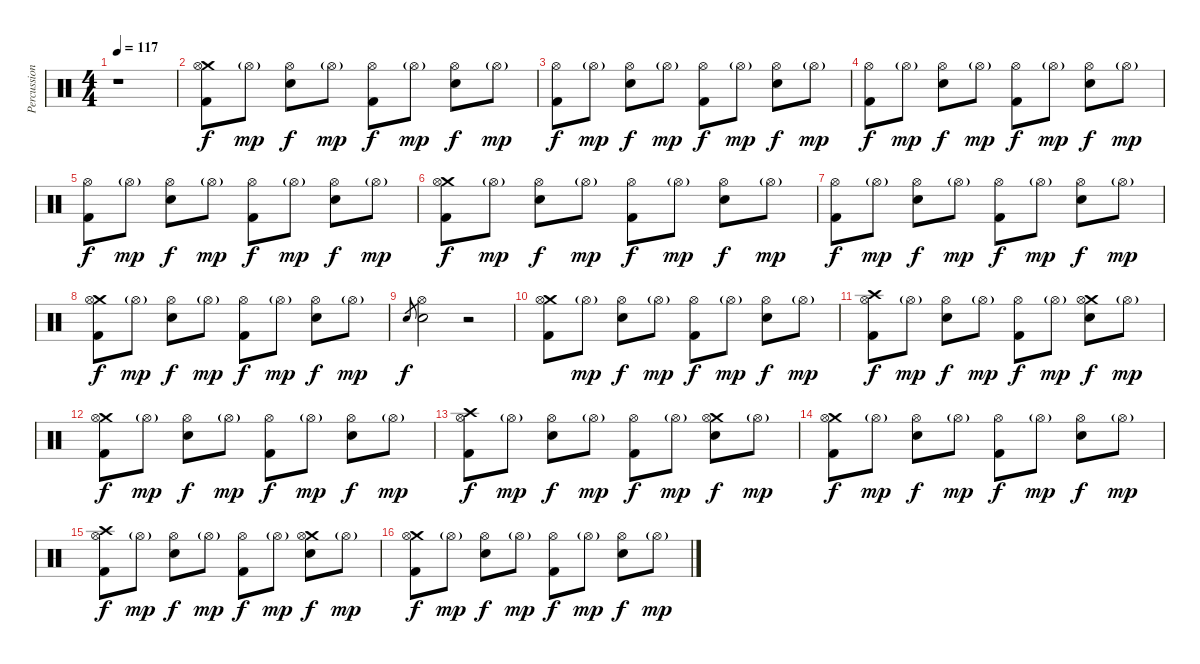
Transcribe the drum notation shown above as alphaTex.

\track ("Percussion" "Percussion") {instrument percussion}
\staff {score}
\articulation defaults
\ts (4 4)
\tempo 117
\clef neutral
\ks c
r.1{dy f} |
("Crash medium (hit)" "Hi-Hat (open)" "Kick (hit) 2").8 "Hi-Hat (open)"{g}.8{dy mp} ("Hi-Hat (open)" "Electric Snare (hit)").8{dy f} "Hi-Hat (open)"{g}.8{dy mp} ("Hi-Hat (open)" "Kick (hit) 2").8{dy f} "Hi-Hat (open)"{g}.8{dy mp} ("Hi-Hat (open)" "Electric Snare (hit)").8{dy f} "Hi-Hat (open)"{g}.8{dy mp} |
("Hi-Hat (open)" "Kick (hit) 2").8{dy f} "Hi-Hat (open)"{g}.8{dy mp} ("Hi-Hat (open)" "Electric Snare (hit)").8{dy f} "Hi-Hat (open)"{g}.8{dy mp} ("Hi-Hat (open)" "Kick (hit) 2").8{dy f} "Hi-Hat (open)"{g}.8{dy mp} ("Hi-Hat (open)" "Electric Snare (hit)").8{dy f} "Hi-Hat (open)"{g}.8{dy mp} |
("Hi-Hat (open)" "Kick (hit) 2").8{dy f} "Hi-Hat (open)"{g}.8{dy mp} ("Hi-Hat (open)" "Electric Snare (hit)").8{dy f} "Hi-Hat (open)"{g}.8{dy mp} ("Hi-Hat (open)" "Kick (hit) 2").8{dy f} "Hi-Hat (open)"{g}.8{dy mp} ("Hi-Hat (open)" "Electric Snare (hit)").8{dy f} "Hi-Hat (open)"{g}.8{dy mp} |
("Hi-Hat (open)" "Kick (hit) 2").8{dy f} "Hi-Hat (open)"{g}.8{dy mp} ("Hi-Hat (open)" "Electric Snare (hit)").8{dy f} "Hi-Hat (open)"{g}.8{dy mp} ("Hi-Hat (open)" "Kick (hit) 2").8{dy f} "Hi-Hat (open)"{g}.8{dy mp} ("Hi-Hat (open)" "Electric Snare (hit)").8{dy f} "Hi-Hat (open)"{g}.8{dy mp} |
("Crash medium (hit)" "Hi-Hat (open)" "Kick (hit) 2").8{dy f} "Hi-Hat (open)"{g}.8{dy mp} ("Hi-Hat (open)" "Electric Snare (hit)").8{dy f} "Hi-Hat (open)"{g}.8{dy mp} ("Hi-Hat (open)" "Kick (hit) 2").8{dy f} "Hi-Hat (open)"{g}.8{dy mp} ("Hi-Hat (open)" "Electric Snare (hit)").8{dy f} "Hi-Hat (open)"{g}.8{dy mp} |
("Hi-Hat (open)" "Kick (hit) 2").8{dy f} "Hi-Hat (open)"{g}.8{dy mp} ("Hi-Hat (open)" "Electric Snare (hit)").8{dy f} "Hi-Hat (open)"{g}.8{dy mp} ("Hi-Hat (open)" "Kick (hit) 2").8{dy f} "Hi-Hat (open)"{g}.8{dy mp} ("Hi-Hat (open)" "Electric Snare (hit)").8{dy f} "Hi-Hat (open)"{g}.8{dy mp} |
("Crash medium (hit)" "Hi-Hat (open)" "Kick (hit) 2").8{dy f} "Hi-Hat (open)"{g}.8{dy mp} ("Hi-Hat (open)" "Electric Snare (hit)").8{dy f} "Hi-Hat (open)"{g}.8{dy mp} ("Hi-Hat (open)" "Kick (hit) 2").8{dy f} "Hi-Hat (open)"{g}.8{dy mp} ("Hi-Hat (open)" "Electric Snare (hit)").8{dy f} "Hi-Hat (open)"{g}.8{dy mp} |
"Snare (hit) 2".8{gr dy f} ("Hi-Hat (open)" "Snare (hit) 2").2 r.2 |
("Crash medium (hit)" "Hi-Hat (open)" "Kick (hit) 2").8 "Hi-Hat (open)"{g}.8{dy mp} ("Hi-Hat (open)" "Electric Snare (hit)").8{dy f} "Hi-Hat (open)"{g}.8{dy mp} ("Hi-Hat (open)" "Kick (hit) 2").8{dy f} "Hi-Hat (open)"{g}.8{dy mp} ("Hi-Hat (open)" "Electric Snare (hit)").8{dy f} "Hi-Hat (open)"{g}.8{dy mp} |
("Crash high (hit)" "Hi-Hat (open)" "Kick (hit) 2").8{dy f} "Hi-Hat (open)"{g}.8{dy mp} ("Hi-Hat (open)" "Electric Snare (hit)").8{dy f} "Hi-Hat (open)"{g}.8{dy mp} ("Hi-Hat (open)" "Kick (hit) 2").8{dy f} "Hi-Hat (open)"{g}.8{dy mp} ("Crash medium (hit)" "Hi-Hat (open)" "Electric Snare (hit)").8{dy f} "Hi-Hat (open)"{g}.8{dy mp} |
("Crash medium (hit)" "Hi-Hat (open)" "Kick (hit) 2").8{dy f} "Hi-Hat (open)"{g}.8{dy mp} ("Hi-Hat (open)" "Electric Snare (hit)").8{dy f} "Hi-Hat (open)"{g}.8{dy mp} ("Hi-Hat (open)" "Kick (hit) 2").8{dy f} "Hi-Hat (open)"{g}.8{dy mp} ("Hi-Hat (open)" "Electric Snare (hit)").8{dy f} "Hi-Hat (open)"{g}.8{dy mp} |
("Crash high (hit)" "Hi-Hat (open)" "Kick (hit) 2").8{dy f} "Hi-Hat (open)"{g}.8{dy mp} ("Hi-Hat (open)" "Electric Snare (hit)").8{dy f} "Hi-Hat (open)"{g}.8{dy mp} ("Hi-Hat (open)" "Kick (hit) 2").8{dy f} "Hi-Hat (open)"{g}.8{dy mp} ("Crash medium (hit)" "Hi-Hat (open)" "Electric Snare (hit)").8{dy f} "Hi-Hat (open)"{g}.8{dy mp} |
("Crash medium (hit)" "Hi-Hat (open)" "Kick (hit) 2").8{dy f} "Hi-Hat (open)"{g}.8{dy mp} ("Hi-Hat (open)" "Electric Snare (hit)").8{dy f} "Hi-Hat (open)"{g}.8{dy mp} ("Hi-Hat (open)" "Kick (hit) 2").8{dy f} "Hi-Hat (open)"{g}.8{dy mp} ("Hi-Hat (open)" "Electric Snare (hit)").8{dy f} "Hi-Hat (open)"{g}.8{dy mp} |
("Crash high (hit)" "Hi-Hat (open)" "Kick (hit) 2").8{dy f} "Hi-Hat (open)"{g}.8{dy mp} ("Hi-Hat (open)" "Electric Snare (hit)").8{dy f} "Hi-Hat (open)"{g}.8{dy mp} ("Hi-Hat (open)" "Kick (hit) 2").8{dy f} "Hi-Hat (open)"{g}.8{dy mp} ("Crash medium (hit)" "Hi-Hat (open)" "Electric Snare (hit)").8{dy f} "Hi-Hat (open)"{g}.8{dy mp} |
("Crash medium (hit)" "Hi-Hat (open)" "Kick (hit) 2").8{dy f} "Hi-Hat (open)"{g}.8{dy mp} ("Hi-Hat (open)" "Electric Snare (hit)").8{dy f} "Hi-Hat (open)"{g}.8{dy mp} ("Hi-Hat (open)" "Kick (hit) 2").8{dy f} "Hi-Hat (open)"{g}.8{dy mp} ("Hi-Hat (open)" "Electric Snare (hit)").8{dy f} "Hi-Hat (open)"{g}.8{dy mp}
